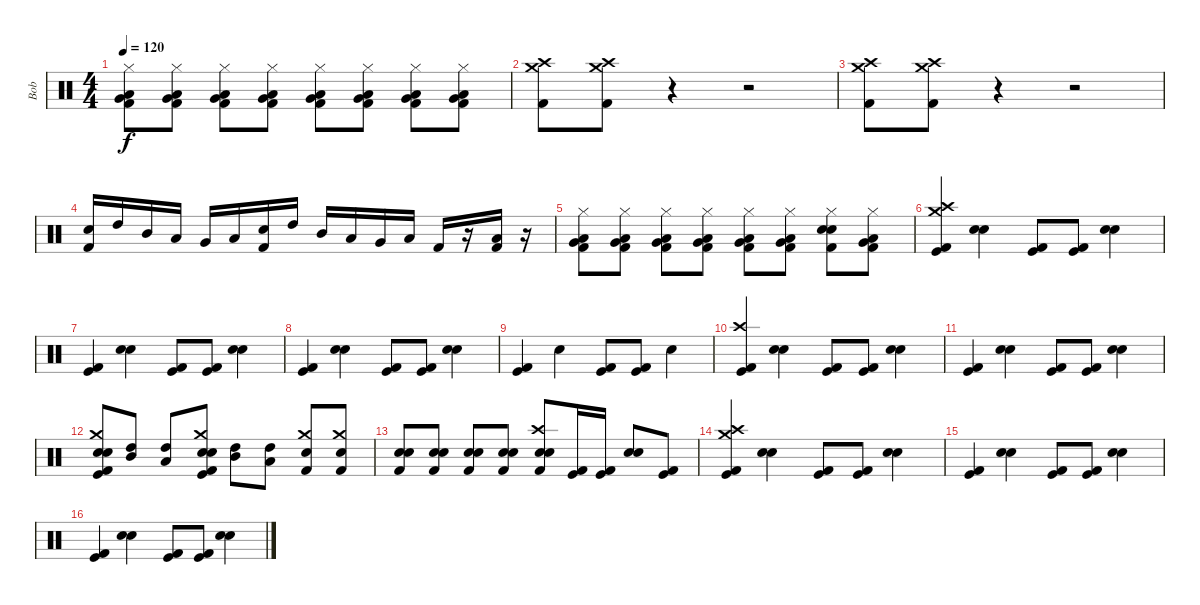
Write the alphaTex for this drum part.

\track ("Bob" "Bob") {instrument percussion}
\staff {score}
\articulation defaults
\ts (4 4)
\tempo 120
\clef neutral
\ks c
("Hi-Hat (closed)" "Very Low Tom (hit)" "Low Tom (hit)" "Kick (hit) 2").8{dy f volume 10} ("Hi-Hat (closed)" "Very Low Tom (hit)" "Low Tom (hit)" "Kick (hit) 2").8{volume 11} ("Hi-Hat (closed)" "Very Low Tom (hit)" "Low Tom (hit)" "Kick (hit) 2").8{volume 12} ("Hi-Hat (closed)" "Very Low Tom (hit)" "Low Tom (hit)" "Kick (hit) 2").8{volume 13} ("Hi-Hat (closed)" "Very Low Tom (hit)" "Low Tom (hit)" "Kick (hit) 2").8 ("Hi-Hat (closed)" "Very Low Tom (hit)" "Low Tom (hit)" "Kick (hit) 2").8 ("Hi-Hat (closed)" "Very Low Tom (hit)" "Low Tom (hit)" "Kick (hit) 2").8 ("Hi-Hat (closed)" "Very Low Tom (hit)" "Low Tom (hit)" "Kick (hit) 2").8 |
("Crash high (hit)" "Crash medium (hit)" "Kick (hit) 2").8 ("Crash high (hit)" "Crash medium (hit)" "Kick (hit) 2").8 r.4 r.2 |
("Crash high (hit)" "Crash medium (hit)" "Kick (hit) 2").8 ("Crash high (hit)" "Crash medium (hit)" "Kick (hit) 2").8 r.4 r.2 |
("Snare (hit) 2" "Kick (hit) 2").16 "High Tom (hit)".16 "Mid Tom (hit)".16 "Low Tom (hit)".16 "Very Low Tom (hit)".16 "Low Floor Tom (hit)".16 ("Snare (hit) 2" "Kick (hit) 2").16 "High Tom (hit)".16 "Mid Tom (hit)".16 "Low Tom (hit)".16 "Very Low Tom (hit)".16 "Low Floor Tom (hit)".16 "Kick (hit) 2".16 r.16 ("Low Tom (hit)" "Kick (hit) 2").16 r.16 |
("Hi-Hat (closed)" "Very Low Tom (hit)" "Low Tom (hit)" "Kick (hit) 2").8 ("Hi-Hat (closed)" "Very Low Tom (hit)" "Low Tom (hit)" "Kick (hit) 2").8 ("Hi-Hat (closed)" "Very Low Tom (hit)" "Low Tom (hit)" "Kick (hit) 2").8 ("Hi-Hat (closed)" "Very Low Tom (hit)" "Low Tom (hit)" "Kick (hit) 2").8 ("Hi-Hat (closed)" "Very Low Tom (hit)" "Low Tom (hit)" "Kick (hit) 2").8 ("Hi-Hat (closed)" "Very Low Tom (hit)" "Low Tom (hit)" "Kick (hit) 2").8 ("Hi-Hat (closed)" "Electric Snare (hit)" "Snare (hit) 2" "Kick (hit) 2").8 ("Hi-Hat (closed)" "Very Low Tom (hit)" "Low Tom (hit)" "Kick (hit) 2").8 |
("Crash medium (hit)" "Crash high (hit)" "Kick (hit)" "Kick (hit) 2").4 ("Electric Snare (hit)" "Snare (hit) 2").4 ("Kick (hit)" "Kick (hit) 2").8 ("Kick (hit)" "Kick (hit) 2").8 ("Electric Snare (hit)" "Snare (hit) 2").4 |
("Kick (hit)" "Kick (hit) 2").4 ("Electric Snare (hit)" "Snare (hit) 2").4 ("Kick (hit)" "Kick (hit) 2").8 ("Kick (hit)" "Kick (hit) 2").8 ("Electric Snare (hit)" "Snare (hit) 2").4 |
("Kick (hit)" "Kick (hit) 2").4 ("Electric Snare (hit)" "Snare (hit) 2").4 ("Kick (hit)" "Kick (hit) 2").8 ("Kick (hit)" "Kick (hit) 2").8 ("Electric Snare (hit)" "Snare (hit) 2").4 |
("Kick (hit)" "Kick (hit) 2").4 "Snare (hit) 2".4 ("Kick (hit)" "Kick (hit) 2").8 ("Kick (hit)" "Kick (hit) 2").8 "Snare (hit) 2".4 |
("Crash high (hit)" "Kick (hit)" "Kick (hit) 2").4 ("Electric Snare (hit)" "Snare (hit) 2").4 ("Kick (hit)" "Kick (hit) 2").8 ("Kick (hit)" "Kick (hit) 2").8 ("Electric Snare (hit)" "Snare (hit) 2").4 |
("Kick (hit)" "Kick (hit) 2").4 ("Electric Snare (hit)" "Snare (hit) 2").4 ("Kick (hit)" "Kick (hit) 2").8 ("Kick (hit)" "Kick (hit) 2").8 ("Electric Snare (hit)" "Snare (hit) 2").4 |
("Crash medium (hit)" "Electric Snare (hit)" "Snare (hit) 2" "Kick (hit)" "Kick (hit) 2").8 ("Mid Tom (hit)" "High Tom (hit)").8 ("High Tom (hit)" "Low Tom (hit)").8 ("Crash medium (hit)" "Electric Snare (hit)" "Snare (hit) 2" "Kick (hit)" "Kick (hit) 2").8 ("Mid Tom (hit)" "High Tom (hit)").8 ("High Tom (hit)" "Low Tom (hit)").8 ("Crash medium (hit)" "Snare (hit) 2" "Kick (hit) 2").8 ("Crash medium (hit)" "Snare (hit) 2" "Kick (hit) 2").8 |
("Snare (hit) 2" "Electric Snare (hit)" "Kick (hit) 2").8 ("Snare (hit) 2" "Electric Snare (hit)" "Kick (hit) 2").8 ("Snare (hit) 2" "Electric Snare (hit)" "Kick (hit) 2").8 ("Snare (hit) 2" "Electric Snare (hit)" "Kick (hit) 2").8 ("Crash high (hit)" "Snare (hit) 2" "Electric Snare (hit)" "Kick (hit) 2").8 ("Kick (hit)" "Kick (hit) 2").16 ("Kick (hit)" "Kick (hit) 2").16 ("Snare (hit) 2" "Electric Snare (hit)").8 ("Kick (hit)" "Kick (hit) 2").8 |
("Crash medium (hit)" "Crash high (hit)" "Kick (hit)" "Kick (hit) 2").4 ("Electric Snare (hit)" "Snare (hit) 2").4 ("Kick (hit)" "Kick (hit) 2").8 ("Kick (hit)" "Kick (hit) 2").8 ("Electric Snare (hit)" "Snare (hit) 2").4 |
("Kick (hit)" "Kick (hit) 2").4 ("Electric Snare (hit)" "Snare (hit) 2").4 ("Kick (hit)" "Kick (hit) 2").8 ("Kick (hit)" "Kick (hit) 2").8 ("Electric Snare (hit)" "Snare (hit) 2").4 |
("Kick (hit)" "Kick (hit) 2").4 ("Electric Snare (hit)" "Snare (hit) 2").4 ("Kick (hit)" "Kick (hit) 2").8 ("Kick (hit)" "Kick (hit) 2").8 ("Electric Snare (hit)" "Snare (hit) 2").4
